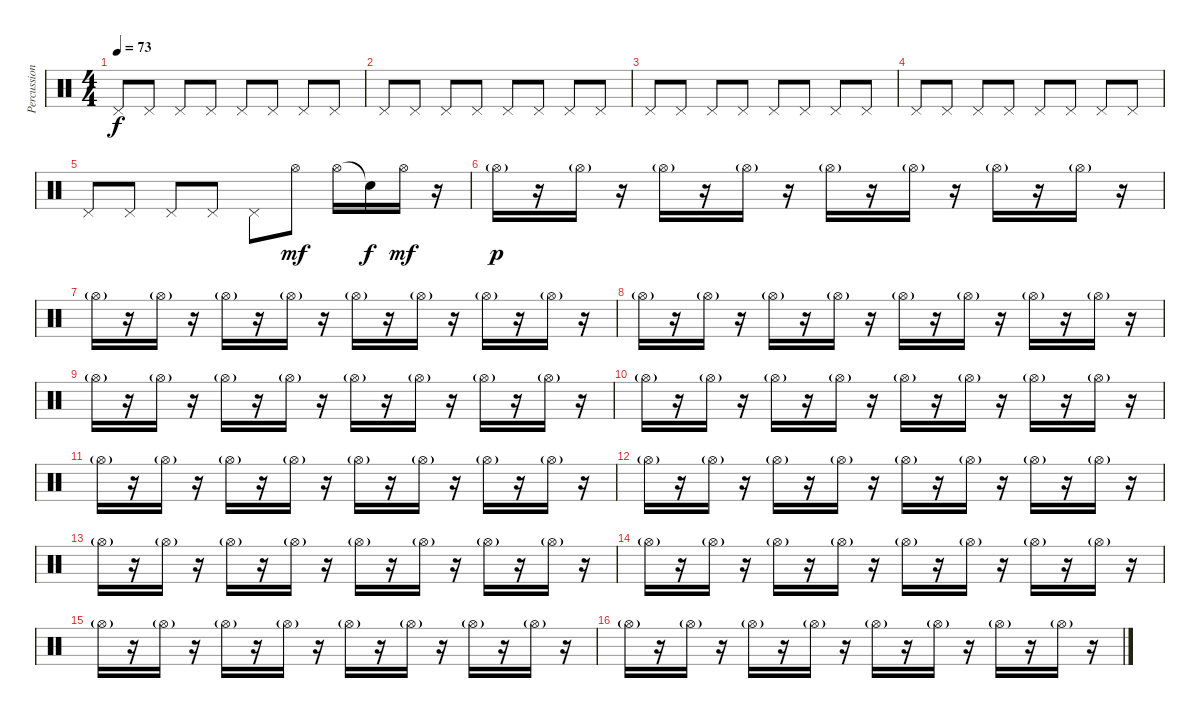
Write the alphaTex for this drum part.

\track ("Percussion" "Percussion") {instrument percussion}
\staff {score}
\articulation defaults
\ts (4 4)
\tempo 73
\clef neutral
\ks c "Pedal Hi-Hat (hit)".8{dy f} "Pedal Hi-Hat (hit)".8 "Pedal Hi-Hat (hit)".8 "Pedal Hi-Hat (hit)".8 "Pedal Hi-Hat (hit)".8 "Pedal Hi-Hat (hit)".8 "Pedal Hi-Hat (hit)".8 "Pedal Hi-Hat (hit)".8
|
"Pedal Hi-Hat (hit)".8 "Pedal Hi-Hat (hit)".8 "Pedal Hi-Hat (hit)".8 "Pedal Hi-Hat (hit)".8 "Pedal Hi-Hat (hit)".8 "Pedal Hi-Hat (hit)".8 "Pedal Hi-Hat (hit)".8 "Pedal Hi-Hat (hit)".8 |
"Pedal Hi-Hat (hit)".8 "Pedal Hi-Hat (hit)".8 "Pedal Hi-Hat (hit)".8 "Pedal Hi-Hat (hit)".8 "Pedal Hi-Hat (hit)".8 "Pedal Hi-Hat (hit)".8 "Pedal Hi-Hat (hit)".8 "Pedal Hi-Hat (hit)".8 |
"Pedal Hi-Hat (hit)".8 "Pedal Hi-Hat (hit)".8 "Pedal Hi-Hat (hit)".8 "Pedal Hi-Hat (hit)".8 "Pedal Hi-Hat (hit)".8 "Pedal Hi-Hat (hit)".8 "Pedal Hi-Hat (hit)".8 "Pedal Hi-Hat (hit)".8 |
"Pedal Hi-Hat (hit)".8 "Pedal Hi-Hat (hit)".8 "Pedal Hi-Hat (hit)".8 "Pedal Hi-Hat (hit)".8 "Pedal Hi-Hat (hit)".8 "Hi-Hat (open)".8{dy mf} "Hi-Hat (open)".16 "Snare (hit)"{t}.16{dy f} "Hi-Hat (open)".16{dy mf} r.16 |
"Hi-Hat (open)"{g}.16{dy p} r.16 "Hi-Hat (open)"{g}.16 r.16 "Hi-Hat (open)"{g}.16 r.16 "Hi-Hat (open)"{g}.16 r.16 "Hi-Hat (open)"{g}.16 r.16 "Hi-Hat (open)"{g}.16 r.16 "Hi-Hat (open)"{g}.16 r.16 "Hi-Hat (open)"{g}.16 r.16 |
"Hi-Hat (open)"{g}.16 r.16 "Hi-Hat (open)"{g}.16 r.16 "Hi-Hat (open)"{g}.16 r.16 "Hi-Hat (open)"{g}.16 r.16 "Hi-Hat (open)"{g}.16 r.16 "Hi-Hat (open)"{g}.16 r.16 "Hi-Hat (open)"{g}.16 r.16 "Hi-Hat (open)"{g}.16 r.16 |
"Hi-Hat (open)"{g}.16 r.16 "Hi-Hat (open)"{g}.16 r.16 "Hi-Hat (open)"{g}.16 r.16 "Hi-Hat (open)"{g}.16 r.16 "Hi-Hat (open)"{g}.16 r.16 "Hi-Hat (open)"{g}.16 r.16 "Hi-Hat (open)"{g}.16 r.16 "Hi-Hat (open)"{g}.16 r.16 |
"Hi-Hat (open)"{g}.16 r.16 "Hi-Hat (open)"{g}.16 r.16 "Hi-Hat (open)"{g}.16 r.16 "Hi-Hat (open)"{g}.16 r.16 "Hi-Hat (open)"{g}.16 r.16 "Hi-Hat (open)"{g}.16 r.16 "Hi-Hat (open)"{g}.16 r.16 "Hi-Hat (open)"{g}.16 r.16 |
"Hi-Hat (open)"{g}.16 r.16 "Hi-Hat (open)"{g}.16 r.16 "Hi-Hat (open)"{g}.16 r.16 "Hi-Hat (open)"{g}.16 r.16 "Hi-Hat (open)"{g}.16 r.16 "Hi-Hat (open)"{g}.16 r.16 "Hi-Hat (open)"{g}.16 r.16 "Hi-Hat (open)"{g}.16 r.16 |
"Hi-Hat (open)"{g}.16 r.16 "Hi-Hat (open)"{g}.16 r.16 "Hi-Hat (open)"{g}.16 r.16 "Hi-Hat (open)"{g}.16 r.16 "Hi-Hat (open)"{g}.16 r.16 "Hi-Hat (open)"{g}.16 r.16 "Hi-Hat (open)"{g}.16 r.16 "Hi-Hat (open)"{g}.16 r.16 |
"Hi-Hat (open)"{g}.16 r.16 "Hi-Hat (open)"{g}.16 r.16 "Hi-Hat (open)"{g}.16 r.16 "Hi-Hat (open)"{g}.16 r.16 "Hi-Hat (open)"{g}.16 r.16 "Hi-Hat (open)"{g}.16 r.16 "Hi-Hat (open)"{g}.16 r.16 "Hi-Hat (open)"{g}.16 r.16 |
"Hi-Hat (open)"{g}.16 r.16 "Hi-Hat (open)"{g}.16 r.16 "Hi-Hat (open)"{g}.16 r.16 "Hi-Hat (open)"{g}.16 r.16 "Hi-Hat (open)"{g}.16 r.16 "Hi-Hat (open)"{g}.16 r.16 "Hi-Hat (open)"{g}.16 r.16 "Hi-Hat (open)"{g}.16 r.16 |
"Hi-Hat (open)"{g}.16 r.16 "Hi-Hat (open)"{g}.16 r.16 "Hi-Hat (open)"{g}.16 r.16 "Hi-Hat (open)"{g}.16 r.16 "Hi-Hat (open)"{g}.16 r.16 "Hi-Hat (open)"{g}.16 r.16 "Hi-Hat (open)"{g}.16 r.16 "Hi-Hat (open)"{g}.16 r.16 |
"Hi-Hat (open)"{g}.16 r.16 "Hi-Hat (open)"{g}.16 r.16 "Hi-Hat (open)"{g}.16 r.16 "Hi-Hat (open)"{g}.16 r.16 "Hi-Hat (open)"{g}.16 r.16 "Hi-Hat (open)"{g}.16 r.16 "Hi-Hat (open)"{g}.16 r.16 "Hi-Hat (open)"{g}.16 r.16 |
"Hi-Hat (open)"{g}.16 r.16 "Hi-Hat (open)"{g}.16 r.16 "Hi-Hat (open)"{g}.16 r.16 "Hi-Hat (open)"{g}.16 r.16 "Hi-Hat (open)"{g}.16 r.16 "Hi-Hat (open)"{g}.16 r.16 "Hi-Hat (open)"{g}.16 r.16 "Hi-Hat (open)"{g}.16 r.16
